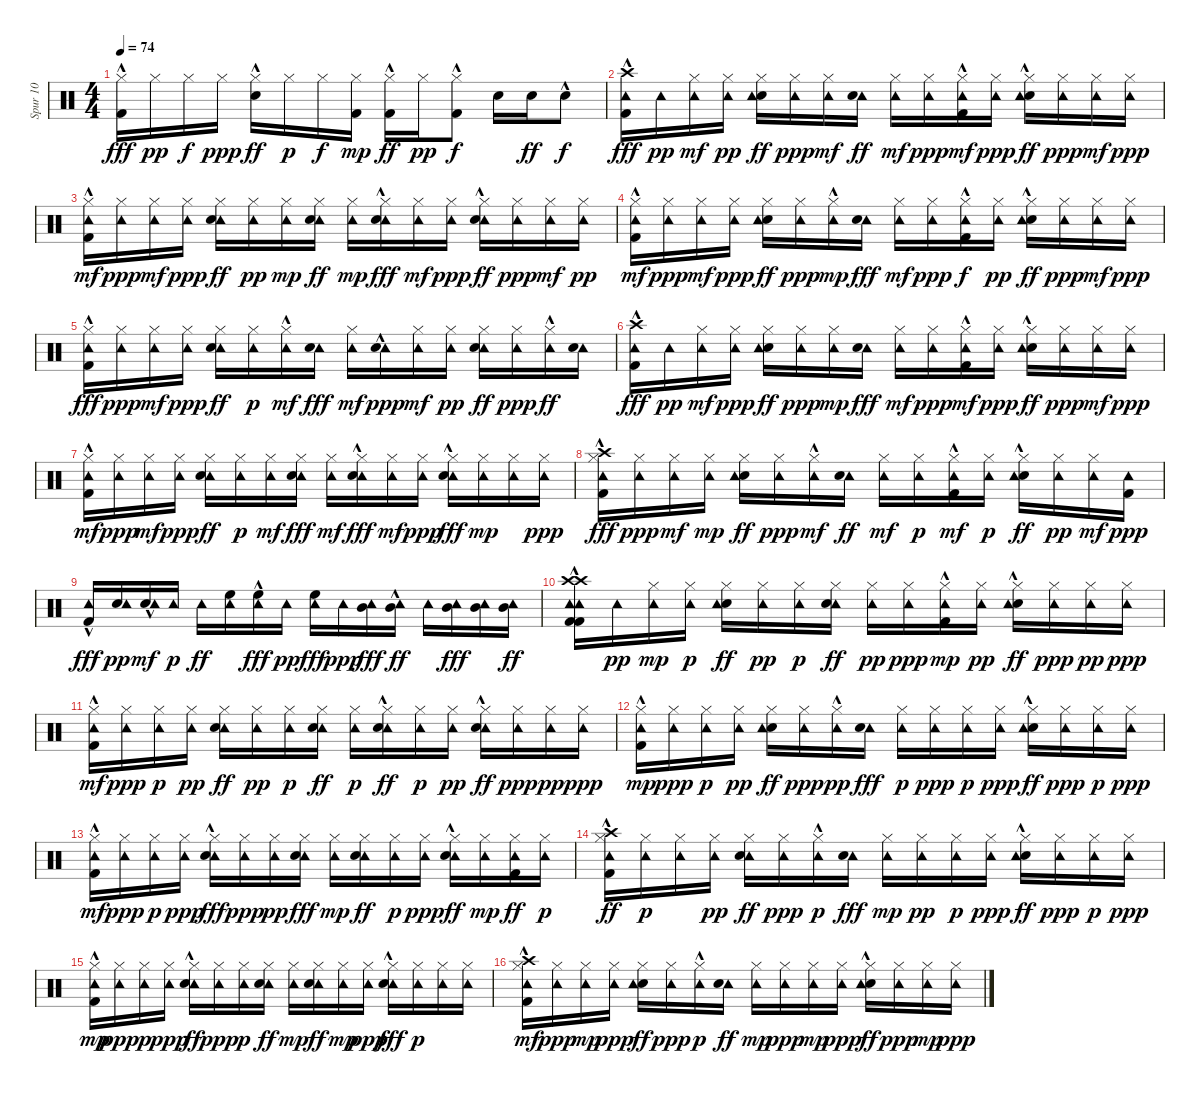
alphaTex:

\track ("Spur 10" "Spur 10") {instrument percussion}
\staff {score}
\articulation defaults
\ts (4 4)
\tempo 74
\clef neutral
\ks c
("Hi-Hat (closed)" "Kick (hit) 2"{hac}).16{dy fff} "Hi-Hat (closed)".16{dy pp} "Hi-Hat (closed)".16{dy f} "Hi-Hat (closed)".16{dy ppp} ("Hi-Hat (closed)" "Snare (hit) 2"{hac}).16{dy ff} "Hi-Hat (closed)".16{dy p} "Hi-Hat (closed)".16{dy f} ("Kick (hit) 2" "Hi-Hat (closed)").16{dy mp} ("Hi-Hat (closed)" "Kick (hit) 2"{hac}).16{dy ff} "Hi-Hat (closed)".16{dy pp} ("Hi-Hat (closed)"{hac} "Kick (hit) 2"{hac}).8{dy f} "Snare (hit) 2".16 "Snare (hit) 2".16{dy ff} "Snare (hit) 2"{hac}.8{dy f} |
("Tambourine (hit)" "Kick (hit) 2"{hac} "Crash high (hit)").16{dy fff} "Tambourine (hit)".16{dy pp} ("Hi-Hat (closed)" "Tambourine (hit)").16{dy mf} ("Hi-Hat (closed)" "Tambourine (hit)").16{dy pp} ("Hi-Hat (closed)" "Snare (hit) 2" "Tambourine (hit)").16{dy ff} ("Hi-Hat (closed)" "Tambourine (hit)").16{dy ppp} ("Hi-Hat (closed)" "Tambourine (hit)").16{dy mf} ("Tambourine (hit)" "Snare (hit) 2").16{dy ff} ("Hi-Hat (closed)" "Tambourine (hit)").16{dy mf} ("Hi-Hat (closed)" "Tambourine (hit)").16{dy ppp} ("Hi-Hat (closed)" "Kick (hit) 2"{hac} "Tambourine (hit)").16{dy mf} ("Hi-Hat (closed)" "Tambourine (hit)").16{dy ppp} ("Hi-Hat (closed)" "Snare (hit) 2"{hac} "Tambourine (hit)").16{dy ff} ("Hi-Hat (closed)" "Tambourine (hit)").16{dy ppp} ("Hi-Hat (closed)" "Tambourine (hit)").16{dy mf} ("Hi-Hat (closed)" "Tambourine (hit)").16{dy ppp} |
("Kick (hit) 2"{hac} "Hi-Hat (closed)" "Tambourine (hit)").16{dy mf} ("Hi-Hat (closed)" "Tambourine (hit)").16{dy ppp} ("Hi-Hat (closed)" "Tambourine (hit)").16{dy mf} ("Hi-Hat (closed)" "Tambourine (hit)").16{dy ppp} ("Tambourine (hit)" "Hi-Hat (closed)" "Snare (hit) 2").16{dy ff} ("Hi-Hat (closed)" "Tambourine (hit)").16{dy pp} ("Hi-Hat (closed)" "Tambourine (hit)").16{dy mp} ("Tambourine (hit)" "Hi-Hat (closed)" "Snare (hit) 2").16{dy ff} ("Hi-Hat (closed)" "Tambourine (hit)").16{dy mp} ("Tambourine (hit)" "Hi-Hat (closed)" "Snare (hit) 2"{hac}).16{dy fff} ("Hi-Hat (closed)" "Tambourine (hit)").16{dy mf} ("Hi-Hat (closed)" "Tambourine (hit)").16{dy ppp} ("Hi-Hat (closed)" "Tambourine (hit)" "Snare (hit) 2"{hac}).16{dy ff} ("Tambourine (hit)" "Hi-Hat (closed)").16{dy ppp} ("Hi-Hat (closed)" "Tambourine (hit)").16{dy mf} ("Tambourine (hit)" "Hi-Hat (closed)").16{dy pp} |
("Kick (hit) 2"{hac} "Hi-Hat (closed)" "Tambourine (hit)").16{dy mf} ("Hi-Hat (closed)" "Tambourine (hit)").16{dy ppp} ("Hi-Hat (closed)" "Tambourine (hit)").16{dy mf} ("Hi-Hat (closed)" "Tambourine (hit)").16{dy ppp} ("Hi-Hat (closed)" "Snare (hit) 2" "Tambourine (hit)").16{dy ff} ("Hi-Hat (closed)" "Tambourine (hit)").16{dy ppp} ("Hi-Hat (closed)"{hac} "Tambourine (hit)").16{dy mp} ("Tambourine (hit)" "Snare (hit) 2").16{dy fff} ("Hi-Hat (closed)" "Tambourine (hit)").16{dy mf} ("Hi-Hat (closed)" "Tambourine (hit)").16{dy ppp} ("Hi-Hat (closed)" "Kick (hit) 2"{hac} "Tambourine (hit)").16{dy f} ("Hi-Hat (closed)" "Tambourine (hit)").16{dy pp} ("Hi-Hat (closed)" "Snare (hit) 2"{hac} "Tambourine (hit)").16{dy ff} ("Hi-Hat (closed)" "Tambourine (hit)").16{dy ppp} ("Hi-Hat (closed)" "Tambourine (hit)").16{dy mf} ("Hi-Hat (closed)" "Tambourine (hit)").16{dy ppp} |
("Kick (hit) 2"{hac} "Hi-Hat (closed)" "Tambourine (hit)").16{dy fff} ("Hi-Hat (closed)" "Tambourine (hit)").16{dy ppp} ("Hi-Hat (closed)" "Tambourine (hit)").16{dy mf} ("Hi-Hat (closed)" "Tambourine (hit)").16{dy ppp} ("Tambourine (hit)" "Hi-Hat (closed)" "Snare (hit) 2").16{dy ff} ("Tambourine (hit)" "Hi-Hat (closed)").16{dy p} ("Hi-Hat (closed)"{hac} "Tambourine (hit)").16{dy mf} ("Tambourine (hit)" "Snare (hit) 2").16{dy fff} ("Tambourine (hit)" "Hi-Hat (closed)").16{dy mf} ("Tambourine (hit)" "Snare (hit) 2"{hac}).16{dy ppp} ("Hi-Hat (closed)" "Tambourine (hit)").16{dy mf} ("Hi-Hat (closed)" "Tambourine (hit)").16{dy pp} ("Hi-Hat (closed)" "Tambourine (hit)" "Snare (hit) 2").16{dy ff} ("Tambourine (hit)" "Hi-Hat (closed)").16{dy ppp} ("Tambourine (hit)" "Hi-Hat (closed)"{hac}).16{dy ff} ("Tambourine (hit)" "Snare (hit) 2").16 |
("Kick (hit) 2"{hac} "Tambourine (hit)" "Crash high (hit)").16{dy fff} "Tambourine (hit)".16{dy pp} ("Tambourine (hit)" "Hi-Hat (closed)").16{dy mf} ("Hi-Hat (closed)" "Tambourine (hit)").16{dy ppp} ("Hi-Hat (closed)" "Snare (hit) 2" "Tambourine (hit)").16{dy ff} ("Hi-Hat (closed)" "Tambourine (hit)").16{dy ppp} ("Hi-Hat (closed)" "Tambourine (hit)").16{dy mp} ("Tambourine (hit)" "Snare (hit) 2").16{dy fff} ("Hi-Hat (closed)" "Tambourine (hit)").16{dy mf} ("Hi-Hat (closed)" "Tambourine (hit)").16{dy ppp} ("Hi-Hat (closed)" "Kick (hit) 2"{hac} "Tambourine (hit)").16{dy mf} ("Hi-Hat (closed)" "Tambourine (hit)").16{dy ppp} ("Hi-Hat (closed)" "Snare (hit) 2"{hac} "Tambourine (hit)").16{dy ff} ("Hi-Hat (closed)" "Tambourine (hit)").16{dy ppp} ("Hi-Hat (closed)" "Tambourine (hit)").16{dy mf} ("Hi-Hat (closed)" "Tambourine (hit)").16{dy ppp} |
("Hi-Hat (closed)" "Kick (hit) 2"{hac} "Tambourine (hit)").16{dy mf} ("Hi-Hat (closed)" "Tambourine (hit)").16{dy ppp} ("Hi-Hat (closed)" "Tambourine (hit)").16{dy mf} ("Hi-Hat (closed)" "Tambourine (hit)").16{dy ppp} ("Hi-Hat (closed)" "Tambourine (hit)" "Snare (hit) 2").16{dy ff} ("Tambourine (hit)" "Hi-Hat (closed)").16{dy p} ("Hi-Hat (closed)" "Tambourine (hit)").16{dy mf} ("Tambourine (hit)" "Hi-Hat (closed)" "Snare (hit) 2").16{dy fff} ("Hi-Hat (closed)" "Tambourine (hit)").16{dy mf} ("Hi-Hat (closed)" "Tambourine (hit)" "Snare (hit) 2"{hac}).16{dy fff} ("Hi-Hat (closed)" "Tambourine (hit)").16{dy mf} ("Hi-Hat (closed)" "Tambourine (hit)").16{dy ppp} ("Hi-Hat (closed)" "Tambourine (hit)" "Snare (hit) 2"{hac}).16{dy fff} ("Tambourine (hit)" "Hi-Hat (closed)").16{dy mp} ("Hi-Hat (closed)" "Tambourine (hit)").16 ("Tambourine (hit)" "Hi-Hat (closed)").16{dy ppp} |
("Kick (hit) 2"{hac} "Hi-Hat (closed)" "Tambourine (hit)" "Crash high (hit)").16{dy fff} ("Hi-Hat (closed)" "Tambourine (hit)").16{dy ppp} ("Hi-Hat (closed)" "Tambourine (hit)").16{dy mf} ("Hi-Hat (closed)" "Tambourine (hit)").16{dy mp} ("Hi-Hat (closed)" "Snare (hit) 2" "Tambourine (hit)").16{dy ff} ("Hi-Hat (closed)" "Tambourine (hit)").16{dy ppp} ("Hi-Hat (closed)"{hac} "Tambourine (hit)").16{dy mf} ("Tambourine (hit)" "Snare (hit) 2").16{dy ff} ("Hi-Hat (closed)" "Tambourine (hit)").16{dy mf} ("Hi-Hat (closed)" "Tambourine (hit)").16{dy p} ("Hi-Hat (closed)" "Kick (hit) 2"{hac} "Tambourine (hit)").16{dy mf} ("Hi-Hat (closed)" "Tambourine (hit)").16{dy p} ("Hi-Hat (closed)" "Snare (hit) 2"{hac} "Tambourine (hit)").16{dy ff} ("Hi-Hat (closed)" "Tambourine (hit)").16{dy pp} ("Hi-Hat (closed)" "Tambourine (hit)").16{dy mf} ("Tambourine (hit)" "Kick (hit) 2").16{dy ppp} |
("Kick (hit) 2"{hac} "Tambourine (hit)").16{dy fff} ("Snare (hit) 2" "Tambourine (hit)").16{dy pp} ("Snare (hit) 2"{hac} "Tambourine (hit)").16{dy mf} "Tambourine (hit)".16{dy p} "Tambourine (hit)".16{dy ff} ("Tambourine (hit)" "High Floor Tom (hit)").16 ("Tambourine (hit)" "High Floor Tom (hit)"{hac}).16{dy fff} "Tambourine (hit)".16{dy pp} ("Tambourine (hit)" "High Floor Tom (hit)").16{dy fff} "Tambourine (hit)".16{dy ppp} ("Tambourine (hit)" "Mid Tom (hit)").16{dy fff} ("Tambourine (hit)" "Mid Tom (hit)"{hac}).16{dy ff} "Tambourine (hit)".16 ("Tambourine (hit)" "Mid Tom (hit)").16{dy fff} ("Tambourine (hit)" "Mid Tom (hit)").16 ("Tambourine (hit)" "Mid Tom (hit)").16{dy ff} |
("Kick (hit) 2" "Kick (hit) 2"{hac} "Crash high (hit)" "Tambourine (hit)" "Tambourine (hit)" "Crash high (hit)").16 "Tambourine (hit)".16{dy pp} ("Tambourine (hit)" "Hi-Hat (closed)").16{dy mp} ("Hi-Hat (closed)" "Tambourine (hit)").16{dy p} ("Hi-Hat (closed)" "Snare (hit) 2" "Tambourine (hit)").16{dy ff} ("Hi-Hat (closed)" "Tambourine (hit)").16{dy pp} ("Hi-Hat (closed)" "Tambourine (hit)").16{dy p} ("Hi-Hat (closed)" "Tambourine (hit)" "Snare (hit) 2").16{dy ff} ("Hi-Hat (closed)" "Tambourine (hit)").16{dy pp} ("Hi-Hat (closed)" "Tambourine (hit)").16{dy ppp} ("Hi-Hat (closed)" "Kick (hit) 2"{hac} "Tambourine (hit)").16{dy mp} ("Hi-Hat (closed)" "Tambourine (hit)").16{dy pp} ("Hi-Hat (closed)" "Snare (hit) 2"{hac} "Tambourine (hit)").16{dy ff} ("Hi-Hat (closed)" "Tambourine (hit)").16{dy ppp} ("Hi-Hat (closed)" "Tambourine (hit)").16{dy pp} ("Hi-Hat (closed)" "Tambourine (hit)").16{dy ppp} |
("Hi-Hat (closed)" "Kick (hit) 2"{hac} "Tambourine (hit)").16{dy mf} ("Hi-Hat (closed)" "Tambourine (hit)").16{dy ppp} ("Hi-Hat (closed)" "Tambourine (hit)").16{dy p} ("Hi-Hat (closed)" "Tambourine (hit)").16{dy pp} ("Hi-Hat (closed)" "Tambourine (hit)" "Snare (hit) 2").16{dy ff} ("Hi-Hat (closed)" "Tambourine (hit)").16{dy pp} ("Hi-Hat (closed)" "Tambourine (hit)").16{dy p} ("Tambourine (hit)" "Snare (hit) 2" "Hi-Hat (closed)").16{dy ff} ("Hi-Hat (closed)" "Tambourine (hit)").16{dy p} ("Hi-Hat (closed)" "Tambourine (hit)" "Snare (hit) 2"{hac}).16{dy ff} ("Hi-Hat (closed)" "Tambourine (hit)").16{dy p} ("Hi-Hat (closed)" "Tambourine (hit)").16{dy pp} ("Hi-Hat (closed)" "Tambourine (hit)" "Snare (hit) 2"{hac}).16{dy ff} ("Hi-Hat (closed)" "Tambourine (hit)").16{dy ppp} ("Hi-Hat (closed)" "Tambourine (hit)").16{dy pp} ("Tambourine (hit)" "Hi-Hat (closed)").16{dy ppp} |
("Kick (hit) 2"{hac} "Hi-Hat (closed)" "Tambourine (hit)").16{dy mp} ("Hi-Hat (closed)" "Tambourine (hit)").16{dy ppp} ("Hi-Hat (closed)" "Tambourine (hit)").16{dy p} ("Hi-Hat (closed)" "Tambourine (hit)").16{dy pp} ("Hi-Hat (closed)" "Snare (hit) 2" "Tambourine (hit)").16{dy ff} ("Hi-Hat (closed)" "Tambourine (hit)").16{dy ppp} ("Hi-Hat (closed)"{hac} "Tambourine (hit)").16{dy pp} ("Tambourine (hit)" "Snare (hit) 2").16{dy fff} ("Hi-Hat (closed)" "Tambourine (hit)").16{dy p} ("Hi-Hat (closed)" "Tambourine (hit)").16{dy ppp} ("Hi-Hat (closed)" "Tambourine (hit)").16{dy p} ("Hi-Hat (closed)" "Tambourine (hit)").16{dy ppp} ("Hi-Hat (closed)" "Snare (hit) 2"{hac} "Tambourine (hit)").16{dy ff} ("Hi-Hat (closed)" "Tambourine (hit)").16{dy ppp} ("Hi-Hat (closed)" "Tambourine (hit)").16{dy p} ("Hi-Hat (closed)" "Tambourine (hit)").16{dy ppp} |
("Kick (hit) 2"{hac} "Hi-Hat (closed)" "Tambourine (hit)").16{dy mf} ("Hi-Hat (closed)" "Tambourine (hit)").16{dy ppp} ("Hi-Hat (closed)" "Tambourine (hit)").16{dy p} ("Hi-Hat (closed)" "Tambourine (hit)").16{dy ppp} ("Hi-Hat (closed)" "Tambourine (hit)" "Snare (hit) 2"{hac}).16{dy fff} ("Hi-Hat (closed)" "Tambourine (hit)").16{dy ppp} ("Hi-Hat (closed)" "Tambourine (hit)").16{dy pp} ("Tambourine (hit)" "Hi-Hat (closed)" "Snare (hit) 2").16{dy fff} ("Hi-Hat (closed)" "Tambourine (hit)").16{dy mp} ("Hi-Hat (closed)" "Tambourine (hit)" "Snare (hit) 2").16{dy ff} ("Hi-Hat (closed)" "Tambourine (hit)").16{dy p} ("Hi-Hat (closed)" "Tambourine (hit)").16{dy ppp} ("Hi-Hat (closed)" "Tambourine (hit)" "Snare (hit) 2"{hac}).16{dy ff} ("Tambourine (hit)" "Hi-Hat (closed)").16{dy mp} ("Kick (hit) 2" "Hi-Hat (closed)" "Tambourine (hit)").16{dy ff} ("Tambourine (hit)" "Hi-Hat (closed)").16{dy p} |
("Hi-Hat (closed)" "Kick (hit) 2"{hac} "Tambourine (hit)" "Crash high (hit)").16{dy ff} ("Hi-Hat (closed)" "Tambourine (hit)").16{dy p} ("Hi-Hat (closed)" "Tambourine (hit)").16 ("Hi-Hat (closed)" "Tambourine (hit)").16{dy pp} ("Tambourine (hit)" "Hi-Hat (closed)" "Snare (hit) 2").16{dy ff} ("Hi-Hat (closed)" "Tambourine (hit)").16{dy ppp} ("Hi-Hat (closed)"{hac} "Tambourine (hit)").16{dy p} ("Tambourine (hit)" "Snare (hit) 2").16{dy fff} ("Hi-Hat (closed)" "Tambourine (hit)").16{dy mp} ("Tambourine (hit)" "Hi-Hat (closed)").16{dy pp} ("Hi-Hat (closed)" "Tambourine (hit)").16{dy p} ("Hi-Hat (closed)" "Tambourine (hit)").16{dy ppp} ("Hi-Hat (closed)" "Snare (hit) 2"{hac} "Tambourine (hit)").16{dy ff} ("Hi-Hat (closed)" "Tambourine (hit)").16{dy ppp} ("Hi-Hat (closed)" "Tambourine (hit)").16{dy p} ("Hi-Hat (closed)" "Tambourine (hit)").16{dy ppp} |
("Kick (hit) 2"{hac} "Hi-Hat (closed)" "Tambourine (hit)").16{dy mp} ("Hi-Hat (closed)" "Tambourine (hit)").16{dy ppp} ("Hi-Hat (closed)" "Tambourine (hit)").16{dy p} ("Hi-Hat (closed)" "Tambourine (hit)").16{dy ppp} ("Hi-Hat (closed)" "Tambourine (hit)" "Snare (hit) 2"{hac}).16{dy ff} ("Hi-Hat (closed)" "Tambourine (hit)").16{dy ppp} ("Hi-Hat (closed)" "Tambourine (hit)").16{dy p} ("Tambourine (hit)" "Hi-Hat (closed)" "Snare (hit) 2").16{dy ff} ("Hi-Hat (closed)" "Tambourine (hit)").16{dy mp} ("Hi-Hat (closed)" "Tambourine (hit)" "Snare (hit) 2").16{dy ff} ("Hi-Hat (closed)" "Tambourine (hit)").16{dy mp} ("Hi-Hat (closed)" "Tambourine (hit)").16{dy ppp} ("Hi-Hat (closed)" "Tambourine (hit)" "Snare (hit) 2"{hac}).16{dy fff} ("Tambourine (hit)" "Hi-Hat (closed)").16{dy p} ("Hi-Hat (closed)" "Tambourine (hit)").16 ("Tambourine (hit)" "Hi-Hat (closed)").16 |
("Kick (hit) 2"{hac} "Hi-Hat (closed)" "Tambourine (hit)" "Crash high (hit)").16{dy mf} ("Hi-Hat (closed)" "Tambourine (hit)").16{dy ppp} ("Hi-Hat (closed)" "Tambourine (hit)").16{dy mp} ("Hi-Hat (closed)" "Tambourine (hit)").16{dy ppp} ("Hi-Hat (closed)" "Snare (hit) 2" "Tambourine (hit)").16{dy ff} ("Hi-Hat (closed)" "Tambourine (hit)").16{dy ppp} ("Hi-Hat (closed)"{hac} "Tambourine (hit)").16{dy p} ("Tambourine (hit)" "Snare (hit) 2").16{dy ff} ("Hi-Hat (closed)" "Tambourine (hit)").16{dy mp} ("Hi-Hat (closed)" "Tambourine (hit)").16{dy ppp} ("Hi-Hat (closed)" "Tambourine (hit)").16{dy mp} ("Hi-Hat (closed)" "Tambourine (hit)").16{dy ppp} ("Hi-Hat (closed)" "Snare (hit) 2"{hac} "Tambourine (hit)").16{dy ff} ("Hi-Hat (closed)" "Tambourine (hit)").16{dy ppp} ("Hi-Hat (closed)" "Tambourine (hit)").16{dy mp} ("Hi-Hat (closed)" "Tambourine (hit)").16{dy ppp}
